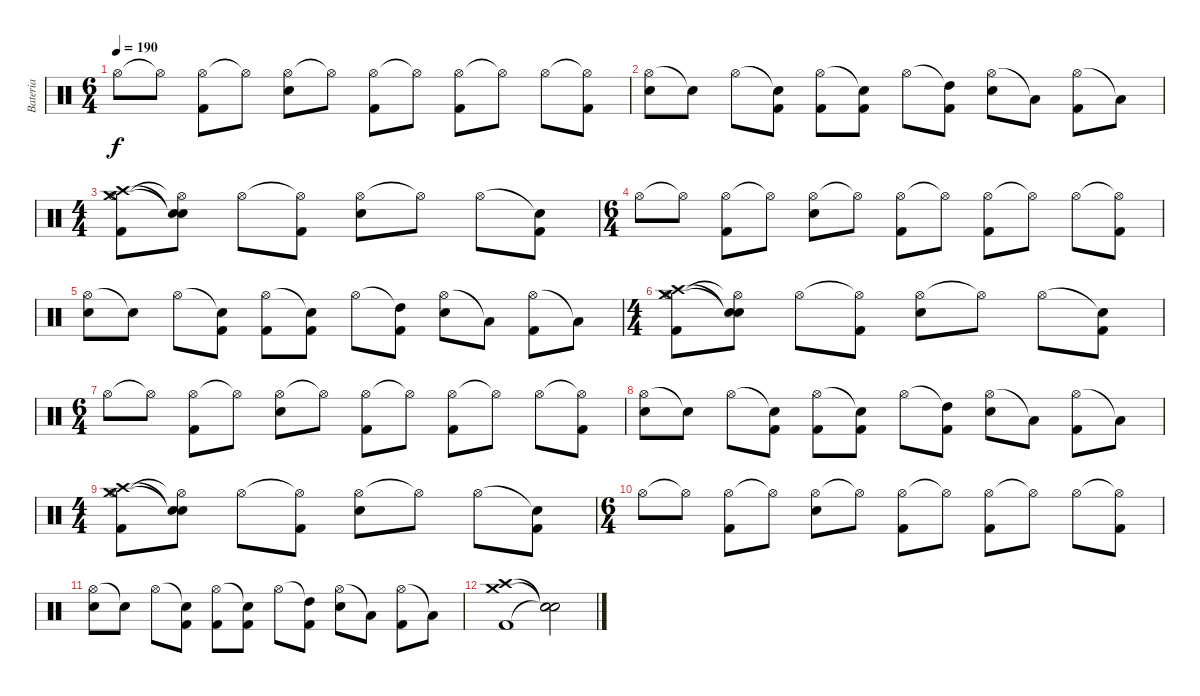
\track ("Bateria" "Bateria") {instrument percussion}
\staff {score}
\articulation defaults
\ts (6 4)
\tempo 190
\clef neutral
\ks c "Hi-Hat (open)".8{dy f} "Hi-Hat (open)"{t}.8
("Hi-Hat (open)" "Kick (hit) 2").8 "Hi-Hat (open)"{t}.8 ("Hi-Hat (open)" "Electric Snare (hit)").8 "Hi-Hat (open)"{t}.8 ("Hi-Hat (open)" "Kick (hit) 2").8 "Hi-Hat (open)"{t}.8 ("Hi-Hat (open)" "Kick (hit) 2").8 "Hi-Hat (open)"{t}.8 "Hi-Hat (open)".8 ("Hi-Hat (open)"{t} "Kick (hit) 2").8 |
("Hi-Hat (open)" "Electric Snare (hit)").8 "Snare (hit)"{t}.8 "Hi-Hat (open)".8 ("Snare (hit)"{t} "Kick (hit) 2").8 ("Hi-Hat (open)" "Kick (hit) 2").8 ("Snare (hit)"{t} "Kick (hit) 2").8 "Hi-Hat (open)".8 ("High Tom (hit)"{t} "Kick (hit) 2").8 ("Hi-Hat (open)" "Electric Snare (hit)").8 "Low Tom (hit)"{t}.8 ("Hi-Hat (open)" "Kick (hit) 2").8 "Low Tom (hit)"{t}.8 |
\ts (4 4)
("Hi-Hat (open)" "Crash high (hit)" "Crash medium (hit)" "Kick (hit) 2").8 ("Snare (hit)"{t} "Snare (hit)"{t} "Hi-Hat (open)"{t}).8 "Hi-Hat (open)".8 ("Hi-Hat (open)"{t} "Kick (hit) 2").8 ("Hi-Hat (open)" "Electric Snare (hit)").8 "Hi-Hat (open)"{t}.8 "Hi-Hat (open)".8 ("Snare (hit)"{t} "Kick (hit) 2").8 |
\ts (6 4)
"Hi-Hat (open)".8 "Hi-Hat (open)"{t}.8 ("Hi-Hat (open)" "Kick (hit) 2").8 "Hi-Hat (open)"{t}.8 ("Hi-Hat (open)" "Electric Snare (hit)").8 "Hi-Hat (open)"{t}.8 ("Hi-Hat (open)" "Kick (hit) 2").8 "Hi-Hat (open)"{t}.8 ("Hi-Hat (open)" "Kick (hit) 2").8 "Hi-Hat (open)"{t}.8 "Hi-Hat (open)".8 ("Hi-Hat (open)"{t} "Kick (hit) 2").8 |
("Hi-Hat (open)" "Electric Snare (hit)").8 "Snare (hit)"{t}.8 "Hi-Hat (open)".8 ("Snare (hit)"{t} "Kick (hit) 2").8 ("Hi-Hat (open)" "Kick (hit) 2").8 ("Snare (hit)"{t} "Kick (hit) 2").8 "Hi-Hat (open)".8 ("High Tom (hit)"{t} "Kick (hit) 2").8 ("Hi-Hat (open)" "Electric Snare (hit)").8 "Low Tom (hit)"{t}.8 ("Hi-Hat (open)" "Kick (hit) 2").8 "Low Tom (hit)"{t}.8 |
\ts (4 4)
("Hi-Hat (open)" "Crash high (hit)" "Crash medium (hit)" "Kick (hit) 2").8 ("Snare (hit)"{t} "Snare (hit)"{t} "Hi-Hat (open)"{t}).8 "Hi-Hat (open)".8 ("Hi-Hat (open)"{t} "Kick (hit) 2").8 ("Hi-Hat (open)" "Electric Snare (hit)").8 "Hi-Hat (open)"{t}.8 "Hi-Hat (open)".8 ("Snare (hit)"{t} "Kick (hit) 2").8 |
\ts (6 4)
"Hi-Hat (open)".8 "Hi-Hat (open)"{t}.8 ("Hi-Hat (open)" "Kick (hit) 2").8 "Hi-Hat (open)"{t}.8 ("Hi-Hat (open)" "Electric Snare (hit)").8 "Hi-Hat (open)"{t}.8 ("Hi-Hat (open)" "Kick (hit) 2").8 "Hi-Hat (open)"{t}.8 ("Hi-Hat (open)" "Kick (hit) 2").8 "Hi-Hat (open)"{t}.8 "Hi-Hat (open)".8 ("Hi-Hat (open)"{t} "Kick (hit) 2").8 |
("Hi-Hat (open)" "Electric Snare (hit)").8 "Snare (hit)"{t}.8 "Hi-Hat (open)".8 ("Snare (hit)"{t} "Kick (hit) 2").8 ("Hi-Hat (open)" "Kick (hit) 2").8 ("Snare (hit)"{t} "Kick (hit) 2").8 "Hi-Hat (open)".8 ("High Tom (hit)"{t} "Kick (hit) 2").8 ("Hi-Hat (open)" "Electric Snare (hit)").8 "Low Tom (hit)"{t}.8 ("Hi-Hat (open)" "Kick (hit) 2").8 "Low Tom (hit)"{t}.8 |
\ts (4 4)
("Hi-Hat (open)" "Crash high (hit)" "Crash medium (hit)" "Kick (hit) 2").8 ("Snare (hit)"{t} "Snare (hit)"{t} "Hi-Hat (open)"{t}).8 "Hi-Hat (open)".8 ("Hi-Hat (open)"{t} "Kick (hit) 2").8 ("Hi-Hat (open)" "Electric Snare (hit)").8 "Hi-Hat (open)"{t}.8 "Hi-Hat (open)".8 ("Snare (hit)"{t} "Kick (hit) 2").8 |
\ts (6 4)
"Hi-Hat (open)".8 "Hi-Hat (open)"{t}.8 ("Hi-Hat (open)" "Kick (hit) 2").8 "Hi-Hat (open)"{t}.8 ("Hi-Hat (open)" "Electric Snare (hit)").8 "Hi-Hat (open)"{t}.8 ("Hi-Hat (open)" "Kick (hit) 2").8 "Hi-Hat (open)"{t}.8 ("Hi-Hat (open)" "Kick (hit) 2").8 "Hi-Hat (open)"{t}.8 "Hi-Hat (open)".8 ("Hi-Hat (open)"{t} "Kick (hit) 2").8 |
("Hi-Hat (open)" "Electric Snare (hit)").8 "Snare (hit)"{t}.8 "Hi-Hat (open)".8 ("Snare (hit)"{t} "Kick (hit) 2").8 ("Hi-Hat (open)" "Kick (hit) 2").8 ("Snare (hit)"{t} "Kick (hit) 2").8 "Hi-Hat (open)".8 ("High Tom (hit)"{t} "Kick (hit) 2").8 ("Hi-Hat (open)" "Electric Snare (hit)").8 "Low Tom (hit)"{t}.8 ("Hi-Hat (open)" "Kick (hit) 2").8 "Low Tom (hit)"{t}.8 |
("Crash high (hit)" "Crash medium (hit)" "Kick (hit) 2").1 ("Snare (hit)"{t} "Snare (hit)"{t} "Snare (hit)"{t}).2
